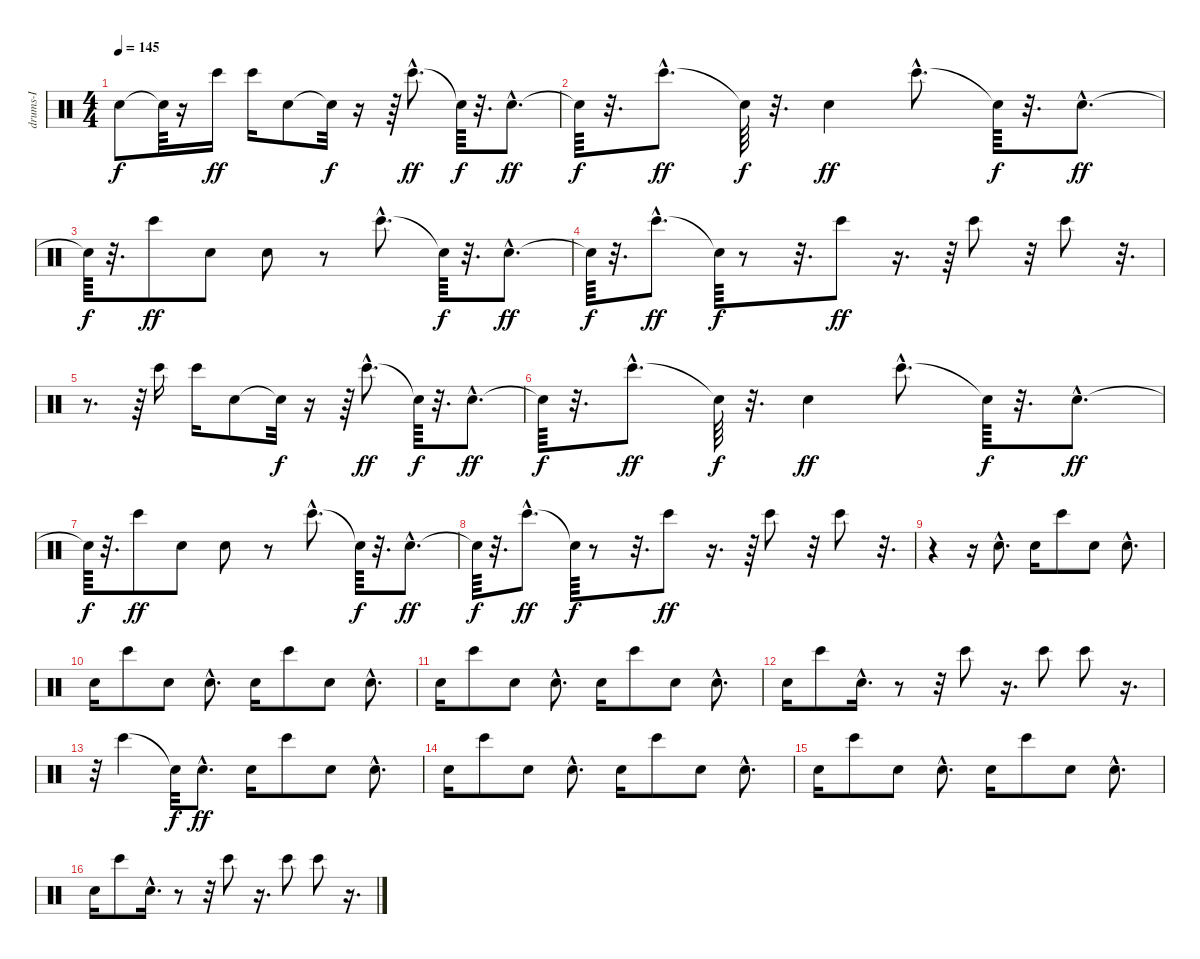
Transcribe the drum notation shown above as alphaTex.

\track ("drums-I" "drums-I") {instrument percussion}
\staff {score}
\articulation defaults
\ts (4 4)
\tempo 145
\clef neutral
\ks c "Snare (hit)"{t}.8{dy f} "Snare (hit)"{t}.64
r.16 "Bongo High (hit)".16{dy ff} "Bongo High (hit)".16 "Snare (hit)".8 "Snare (hit)"{t}.32{dy f} r.16 r.64 "Bongo High (hit)"{hac}.8{d dy ff} "Snare (hit)"{t}.64{dy f} r.32{d} "Snare (hit)"{hac}.8{d dy ff} |
"Snare (hit)"{t}.64{dy f} r.32{d} "Bongo High (hit)"{hac}.8{d dy ff} "Snare (hit)"{t}.64{dy f} r.32{d} "Snare (hit)".4{dy ff} "Bongo High (hit)"{hac}.8{d} "Snare (hit)"{t}.64{dy f} r.32{d} "Snare (hit)"{hac}.8{d dy ff} |
"Snare (hit)"{t}.64{dy f} r.32{d} "Bongo High (hit)".8{dy ff} "Snare (hit)".8 "Snare (hit)".8 r.8 "Bongo High (hit)"{hac}.8{d} "Snare (hit)"{t}.64{dy f} r.32{d} "Snare (hit)"{hac}.8{d dy ff} |
"Snare (hit)"{t}.64{dy f} r.32{d} "Bongo High (hit)"{hac}.8{d dy ff} "Snare (hit)"{t}.64{dy f} r.8 r.32{d} "Bongo High (hit)".8{dy ff} r.16{d} r.64 "Bongo High (hit)".8 r.32 "Bongo High (hit)".8 r.32{d} |
r.8{d} r.64 "Bongo High (hit)".16 "Bongo High (hit)".16 "Snare (hit)".8 "Snare (hit)"{t}.32{dy f} r.16 r.64 "Bongo High (hit)"{hac}.8{d dy ff} "Snare (hit)"{t}.64{dy f} r.32{d} "Snare (hit)"{hac}.8{d dy ff} |
"Snare (hit)"{t}.64{dy f} r.32{d} "Bongo High (hit)"{hac}.8{d dy ff} "Snare (hit)"{t}.64{dy f} r.32{d} "Snare (hit)".4{dy ff} "Bongo High (hit)"{hac}.8{d} "Snare (hit)"{t}.64{dy f} r.32{d} "Snare (hit)"{hac}.8{d dy ff} |
"Snare (hit)"{t}.64{dy f} r.32{d} "Bongo High (hit)".8{dy ff} "Snare (hit)".8 "Snare (hit)".8 r.8 "Bongo High (hit)"{hac}.8{d} "Snare (hit)"{t}.64{dy f} r.32{d} "Snare (hit)"{hac}.8{d dy ff} |
"Snare (hit)"{t}.64{dy f} r.32{d} "Bongo High (hit)"{hac}.8{d dy ff} "Snare (hit)"{t}.64{dy f} r.8 r.32{d} "Bongo High (hit)".8{dy ff} r.16{d} r.64 "Bongo High (hit)".8 r.32 "Bongo High (hit)".8 r.32{d} |
r.4 r.16 "Snare (hit)"{hac}.8{d} "Snare (hit)".16 "Bongo High (hit)".8 "Snare (hit)".8 "Snare (hit)"{hac}.8{d} |
"Snare (hit)".16 "Bongo High (hit)".8 "Snare (hit)".8 "Snare (hit)"{hac}.8{d} "Snare (hit)".16 "Bongo High (hit)".8 "Snare (hit)".8 "Snare (hit)"{hac}.8{d} |
"Snare (hit)".16 "Bongo High (hit)".8 "Snare (hit)".8 "Snare (hit)"{hac}.8{d} "Snare (hit)".16 "Bongo High (hit)".8 "Snare (hit)".8 "Snare (hit)"{hac}.8{d} |
"Snare (hit)".16 "Bongo High (hit)".8 "Snare (hit)"{hac}.16{d} r.8 r.32 "Bongo High (hit)".8 r.16{d} "Bongo High (hit)".8 "Bongo High (hit)".8 r.16{d} |
r.32 "Bongo High (hit)".4 "Snare (hit)"{t}.32{dy f} "Snare (hit)"{hac}.8{d dy ff} "Snare (hit)".16 "Bongo High (hit)".8 "Snare (hit)".8 "Snare (hit)"{hac}.8{d} |
"Snare (hit)".16 "Bongo High (hit)".8 "Snare (hit)".8 "Snare (hit)"{hac}.8{d} "Snare (hit)".16 "Bongo High (hit)".8 "Snare (hit)".8 "Snare (hit)"{hac}.8{d} |
"Snare (hit)".16 "Bongo High (hit)".8 "Snare (hit)".8 "Snare (hit)"{hac}.8{d} "Snare (hit)".16 "Bongo High (hit)".8 "Snare (hit)".8 "Snare (hit)"{hac}.8{d} |
"Snare (hit)".16 "Bongo High (hit)".8 "Snare (hit)"{hac}.16{d} r.8 r.32 "Bongo High (hit)".8 r.16{d} "Bongo High (hit)".8 "Bongo High (hit)".8 r.16{d}
